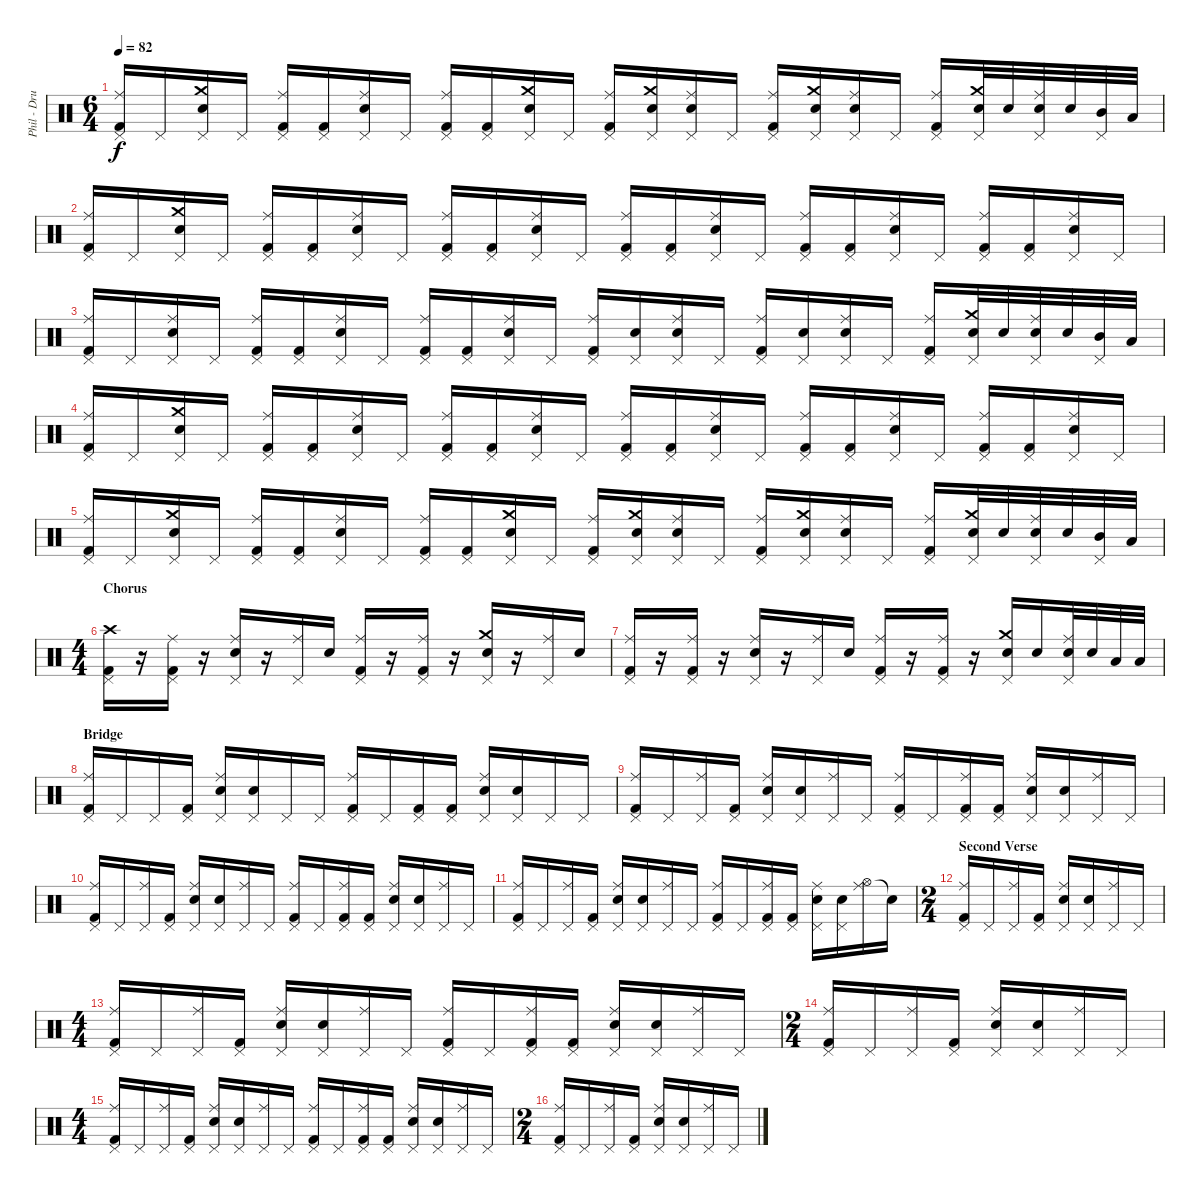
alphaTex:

\track ("Phil - Drums" "Phil - Dru") {instrument percussion}
\staff {score}
\articulation defaults
\ts (6 4)
\tempo 82
\clef neutral
\ks c
("Ride (middle)" "Kick (hit) 2" "Pedal Hi-Hat (hit)").16{dy f} "Pedal Hi-Hat (hit)".16 ("Crash medium (hit)" "Electric Snare (hit)" "Pedal Hi-Hat (hit)").16 "Pedal Hi-Hat (hit)".16 ("Ride (middle)" "Kick (hit) 2" "Pedal Hi-Hat (hit)").16 ("Kick (hit) 2" "Pedal Hi-Hat (hit)").16 ("Ride (middle)" "Electric Snare (hit)" "Pedal Hi-Hat (hit)").16 "Pedal Hi-Hat (hit)".16 ("Ride (middle)" "Kick (hit) 2" "Pedal Hi-Hat (hit)").16 ("Kick (hit) 2" "Pedal Hi-Hat (hit)").16 ("Crash medium (hit)" "Electric Snare (hit)" "Pedal Hi-Hat (hit)").16 "Pedal Hi-Hat (hit)".16 ("Ride (middle)" "Kick (hit) 2" "Pedal Hi-Hat (hit)").16 ("Crash medium (hit)" "Electric Snare (hit)" "Pedal Hi-Hat (hit)").16 ("Ride (middle)" "Electric Snare (hit)" "Pedal Hi-Hat (hit)").16 "Pedal Hi-Hat (hit)".16 ("Ride (middle)" "Kick (hit) 2" "Pedal Hi-Hat (hit)").16 ("Crash medium (hit)" "Electric Snare (hit)" "Pedal Hi-Hat (hit)").16 ("Ride (middle)" "Electric Snare (hit)" "Pedal Hi-Hat (hit)").16 "Pedal Hi-Hat (hit)".16 ("Ride (middle)" "Kick (hit) 2" "Pedal Hi-Hat (hit)").16 ("Crash medium (hit)" "Electric Snare (hit)" "Pedal Hi-Hat (hit)").32 "Electric Snare (hit)".32 ("Ride (middle)" "Electric Snare (hit)" "Pedal Hi-Hat (hit)").32 "Electric Snare (hit)".32 ("Mid Tom (hit)" "Pedal Hi-Hat (hit)").32 "Low Tom (hit)".32 |
("Ride (middle)" "Kick (hit) 2" "Pedal Hi-Hat (hit)").16 "Pedal Hi-Hat (hit)".16 ("Crash medium (hit)" "Electric Snare (hit)" "Pedal Hi-Hat (hit)").16 "Pedal Hi-Hat (hit)".16 ("Ride (middle)" "Kick (hit) 2" "Pedal Hi-Hat (hit)").16 ("Kick (hit) 2" "Pedal Hi-Hat (hit)").16 ("Ride (middle)" "Electric Snare (hit)" "Pedal Hi-Hat (hit)").16 "Pedal Hi-Hat (hit)".16 ("Ride (middle)" "Kick (hit) 2" "Pedal Hi-Hat (hit)").16 ("Kick (hit) 2" "Pedal Hi-Hat (hit)").16 ("Ride (middle)" "Electric Snare (hit)" "Pedal Hi-Hat (hit)").16 "Pedal Hi-Hat (hit)".16 ("Ride (middle)" "Kick (hit) 2" "Pedal Hi-Hat (hit)").16 ("Kick (hit) 2" "Pedal Hi-Hat (hit)").16 ("Ride (middle)" "Electric Snare (hit)" "Pedal Hi-Hat (hit)").16 "Pedal Hi-Hat (hit)".16 ("Ride (middle)" "Kick (hit) 2" "Pedal Hi-Hat (hit)").16 ("Kick (hit) 2" "Pedal Hi-Hat (hit)").16 ("Ride (middle)" "Electric Snare (hit)" "Pedal Hi-Hat (hit)").16 "Pedal Hi-Hat (hit)".16 ("Ride (middle)" "Kick (hit) 2" "Pedal Hi-Hat (hit)").16 ("Kick (hit) 2" "Pedal Hi-Hat (hit)").16 ("Ride (middle)" "Electric Snare (hit)" "Pedal Hi-Hat (hit)").16 "Pedal Hi-Hat (hit)".16 |
("Ride (middle)" "Kick (hit) 2" "Pedal Hi-Hat (hit)").16 "Pedal Hi-Hat (hit)".16 ("Ride (middle)" "Electric Snare (hit)" "Pedal Hi-Hat (hit)").16 "Pedal Hi-Hat (hit)".16 ("Ride (middle)" "Kick (hit) 2" "Pedal Hi-Hat (hit)").16 ("Kick (hit) 2" "Pedal Hi-Hat (hit)").16 ("Ride (middle)" "Electric Snare (hit)" "Pedal Hi-Hat (hit)").16 "Pedal Hi-Hat (hit)".16 ("Ride (middle)" "Kick (hit) 2" "Pedal Hi-Hat (hit)").16 ("Kick (hit) 2" "Pedal Hi-Hat (hit)").16 ("Ride (middle)" "Electric Snare (hit)" "Pedal Hi-Hat (hit)").16 "Pedal Hi-Hat (hit)".16 ("Ride (middle)" "Kick (hit) 2" "Pedal Hi-Hat (hit)").16 ("Electric Snare (hit)" "Pedal Hi-Hat (hit)").16 ("Ride (middle)" "Electric Snare (hit)" "Pedal Hi-Hat (hit)").16 "Pedal Hi-Hat (hit)".16 ("Ride (middle)" "Kick (hit) 2" "Pedal Hi-Hat (hit)").16 ("Electric Snare (hit)" "Pedal Hi-Hat (hit)").16 ("Ride (middle)" "Electric Snare (hit)" "Pedal Hi-Hat (hit)").16 "Pedal Hi-Hat (hit)".16 ("Ride (middle)" "Kick (hit) 2" "Pedal Hi-Hat (hit)").16 ("Crash medium (hit)" "Electric Snare (hit)" "Pedal Hi-Hat (hit)").32 "Electric Snare (hit)".32 ("Ride (middle)" "Electric Snare (hit)" "Pedal Hi-Hat (hit)").32 "Electric Snare (hit)".32 ("Mid Tom (hit)" "Pedal Hi-Hat (hit)").32 "Low Tom (hit)".32 |
("Ride (middle)" "Kick (hit) 2" "Pedal Hi-Hat (hit)").16 "Pedal Hi-Hat (hit)".16 ("Crash medium (hit)" "Electric Snare (hit)" "Pedal Hi-Hat (hit)").16 "Pedal Hi-Hat (hit)".16 ("Ride (middle)" "Kick (hit) 2" "Pedal Hi-Hat (hit)").16 ("Kick (hit) 2" "Pedal Hi-Hat (hit)").16 ("Ride (middle)" "Electric Snare (hit)" "Pedal Hi-Hat (hit)").16 "Pedal Hi-Hat (hit)".16 ("Ride (middle)" "Kick (hit) 2" "Pedal Hi-Hat (hit)").16 ("Kick (hit) 2" "Pedal Hi-Hat (hit)").16 ("Ride (middle)" "Electric Snare (hit)" "Pedal Hi-Hat (hit)").16 "Pedal Hi-Hat (hit)".16 ("Ride (middle)" "Kick (hit) 2" "Pedal Hi-Hat (hit)").16 ("Kick (hit) 2" "Pedal Hi-Hat (hit)").16 ("Ride (middle)" "Electric Snare (hit)" "Pedal Hi-Hat (hit)").16 "Pedal Hi-Hat (hit)".16 ("Ride (middle)" "Kick (hit) 2" "Pedal Hi-Hat (hit)").16 ("Kick (hit) 2" "Pedal Hi-Hat (hit)").16 ("Ride (middle)" "Electric Snare (hit)" "Pedal Hi-Hat (hit)").16 "Pedal Hi-Hat (hit)".16 ("Ride (middle)" "Kick (hit) 2" "Pedal Hi-Hat (hit)").16 ("Kick (hit) 2" "Pedal Hi-Hat (hit)").16 ("Ride (middle)" "Electric Snare (hit)" "Pedal Hi-Hat (hit)").16 "Pedal Hi-Hat (hit)".16 |
("Ride (middle)" "Kick (hit) 2" "Pedal Hi-Hat (hit)").16 "Pedal Hi-Hat (hit)".16 ("Crash medium (hit)" "Electric Snare (hit)" "Pedal Hi-Hat (hit)").16 "Pedal Hi-Hat (hit)".16 ("Ride (middle)" "Kick (hit) 2" "Pedal Hi-Hat (hit)").16 ("Kick (hit) 2" "Pedal Hi-Hat (hit)").16 ("Ride (middle)" "Electric Snare (hit)" "Pedal Hi-Hat (hit)").16 "Pedal Hi-Hat (hit)".16 ("Ride (middle)" "Kick (hit) 2" "Pedal Hi-Hat (hit)").16 ("Kick (hit) 2" "Pedal Hi-Hat (hit)").16 ("Crash medium (hit)" "Electric Snare (hit)" "Pedal Hi-Hat (hit)").16 "Pedal Hi-Hat (hit)".16 ("Ride (middle)" "Kick (hit) 2" "Pedal Hi-Hat (hit)").16 ("Crash medium (hit)" "Electric Snare (hit)" "Pedal Hi-Hat (hit)").16 ("Ride (middle)" "Electric Snare (hit)" "Pedal Hi-Hat (hit)").16 "Pedal Hi-Hat (hit)".16 ("Ride (middle)" "Kick (hit) 2" "Pedal Hi-Hat (hit)").16 ("Crash medium (hit)" "Electric Snare (hit)" "Pedal Hi-Hat (hit)").16 ("Ride (middle)" "Electric Snare (hit)" "Pedal Hi-Hat (hit)").16 "Pedal Hi-Hat (hit)".16 ("Ride (middle)" "Kick (hit) 2" "Pedal Hi-Hat (hit)").16 ("Crash medium (hit)" "Electric Snare (hit)" "Pedal Hi-Hat (hit)").32 "Electric Snare (hit)".32 ("Ride (middle)" "Electric Snare (hit)" "Pedal Hi-Hat (hit)").32 "Electric Snare (hit)".32 ("Mid Tom (hit)" "Pedal Hi-Hat (hit)").32 "Low Tom (hit)".32 |
\ts (4 4)
\section ("" "Chorus")
("Crash high (hit)" "Kick (hit) 2" "Pedal Hi-Hat (hit)").16 r.16 ("Ride (middle)" "Kick (hit) 2" "Pedal Hi-Hat (hit)").16 r.16 ("Ride (middle)" "Electric Snare (hit)" "Pedal Hi-Hat (hit)").16 r.16 ("Ride (middle)" "Pedal Hi-Hat (hit)").16 "Electric Snare (hit)".16 ("Ride (middle)" "Kick (hit) 2" "Pedal Hi-Hat (hit)").16 r.16 ("Ride (middle)" "Kick (hit) 2" "Pedal Hi-Hat (hit)").16 r.16 ("Crash medium (hit)" "Electric Snare (hit)" "Pedal Hi-Hat (hit)").16 r.16 ("Ride (middle)" "Pedal Hi-Hat (hit)").16 "Electric Snare (hit)".16 |
("Ride (middle)" "Kick (hit) 2" "Pedal Hi-Hat (hit)").16 r.16 ("Ride (middle)" "Kick (hit) 2" "Pedal Hi-Hat (hit)").16 r.16 ("Ride (middle)" "Electric Snare (hit)" "Pedal Hi-Hat (hit)").16 r.16 ("Ride (middle)" "Pedal Hi-Hat (hit)").16 "Electric Snare (hit)".16 ("Ride (middle)" "Kick (hit) 2" "Pedal Hi-Hat (hit)").16 r.16 ("Ride (middle)" "Kick (hit) 2" "Pedal Hi-Hat (hit)").16 r.16 ("Crash medium (hit)" "Electric Snare (hit)" "Pedal Hi-Hat (hit)").16 "Electric Snare (hit)".16 ("Ride (middle)" "Electric Snare (hit)" "Pedal Hi-Hat (hit)").32 "Electric Snare (hit)".32 "Low Tom (hit)".32 "Low Tom (hit)".32 |
\section ("" "Bridge")
("Ride (middle)" "Kick (hit) 2" "Pedal Hi-Hat (hit)").16 "Pedal Hi-Hat (hit)".16 "Pedal Hi-Hat (hit)".16 ("Kick (hit) 2" "Pedal Hi-Hat (hit)").16 ("Ride (middle)" "Electric Snare (hit)" "Pedal Hi-Hat (hit)").16 ("Electric Snare (hit)" "Pedal Hi-Hat (hit)").16 "Pedal Hi-Hat (hit)".16 "Pedal Hi-Hat (hit)".16 ("Ride (middle)" "Kick (hit) 2" "Pedal Hi-Hat (hit)").16 "Pedal Hi-Hat (hit)".16 ("Kick (hit) 2" "Pedal Hi-Hat (hit)").16 ("Kick (hit) 2" "Pedal Hi-Hat (hit)").16 ("Ride (middle)" "Electric Snare (hit)" "Pedal Hi-Hat (hit)").16 ("Electric Snare (hit)" "Pedal Hi-Hat (hit)").16 "Pedal Hi-Hat (hit)".16 "Pedal Hi-Hat (hit)".16 |
("Ride (middle)" "Kick (hit) 2" "Pedal Hi-Hat (hit)").16 "Pedal Hi-Hat (hit)".16 ("Ride (middle)" "Pedal Hi-Hat (hit)").16 ("Kick (hit) 2" "Pedal Hi-Hat (hit)").16 ("Ride (middle)" "Electric Snare (hit)" "Pedal Hi-Hat (hit)").16 ("Electric Snare (hit)" "Pedal Hi-Hat (hit)").16 ("Ride (middle)" "Pedal Hi-Hat (hit)").16 "Pedal Hi-Hat (hit)".16 ("Ride (middle)" "Kick (hit) 2" "Pedal Hi-Hat (hit)").16 "Pedal Hi-Hat (hit)".16 ("Ride (middle)" "Kick (hit) 2" "Pedal Hi-Hat (hit)").16 ("Kick (hit) 2" "Pedal Hi-Hat (hit)").16 ("Ride (middle)" "Electric Snare (hit)" "Pedal Hi-Hat (hit)").16 ("Electric Snare (hit)" "Pedal Hi-Hat (hit)").16 ("Ride (middle)" "Pedal Hi-Hat (hit)").16 "Pedal Hi-Hat (hit)".16 |
("Ride (middle)" "Kick (hit) 2" "Pedal Hi-Hat (hit)").16 "Pedal Hi-Hat (hit)".16 ("Ride (middle)" "Pedal Hi-Hat (hit)").16 ("Kick (hit) 2" "Pedal Hi-Hat (hit)").16 ("Ride (middle)" "Electric Snare (hit)" "Pedal Hi-Hat (hit)").16 ("Electric Snare (hit)" "Pedal Hi-Hat (hit)").16 ("Ride (middle)" "Pedal Hi-Hat (hit)").16 "Pedal Hi-Hat (hit)".16 ("Ride (middle)" "Kick (hit) 2" "Pedal Hi-Hat (hit)").16 "Pedal Hi-Hat (hit)".16 ("Ride (middle)" "Kick (hit) 2" "Pedal Hi-Hat (hit)").16 ("Kick (hit) 2" "Pedal Hi-Hat (hit)").16 ("Ride (middle)" "Electric Snare (hit)" "Pedal Hi-Hat (hit)").16 ("Electric Snare (hit)" "Pedal Hi-Hat (hit)").16 ("Ride (middle)" "Pedal Hi-Hat (hit)").16 "Pedal Hi-Hat (hit)".16 |
("Ride (middle)" "Kick (hit) 2" "Pedal Hi-Hat (hit)").16 "Pedal Hi-Hat (hit)".16 ("Ride (middle)" "Pedal Hi-Hat (hit)").16 ("Kick (hit) 2" "Pedal Hi-Hat (hit)").16 ("Ride (middle)" "Electric Snare (hit)" "Pedal Hi-Hat (hit)").16 ("Electric Snare (hit)" "Pedal Hi-Hat (hit)").16 ("Ride (middle)" "Pedal Hi-Hat (hit)").16 "Pedal Hi-Hat (hit)".16 ("Ride (middle)" "Kick (hit) 2" "Pedal Hi-Hat (hit)").16 "Pedal Hi-Hat (hit)".16 ("Ride (middle)" "Kick (hit) 2" "Pedal Hi-Hat (hit)").16 ("Kick (hit) 2" "Pedal Hi-Hat (hit)").16 ("Ride (middle)" "Electric Snare (hit)" "Pedal Hi-Hat (hit)").16 ("Electric Snare (hit)" "Pedal Hi-Hat (hit)").16 ("Ride (middle)" "Hi-Hat (open)").16 "Snare (hit)"{t}.16 |
\ts (2 4)
\section ("" "Second Verse")
("Ride (middle)" "Kick (hit) 2" "Pedal Hi-Hat (hit)").16 "Pedal Hi-Hat (hit)".16 ("Ride (middle)" "Pedal Hi-Hat (hit)").16 ("Kick (hit) 2" "Pedal Hi-Hat (hit)").16 ("Ride (middle)" "Electric Snare (hit)" "Pedal Hi-Hat (hit)").16 ("Electric Snare (hit)" "Pedal Hi-Hat (hit)").16 ("Ride (middle)" "Pedal Hi-Hat (hit)").16 "Pedal Hi-Hat (hit)".16 |
\ts (4 4)
("Ride (middle)" "Kick (hit) 2" "Pedal Hi-Hat (hit)").16 "Pedal Hi-Hat (hit)".16 ("Ride (middle)" "Pedal Hi-Hat (hit)").16 ("Kick (hit) 2" "Pedal Hi-Hat (hit)").16 ("Ride (middle)" "Electric Snare (hit)" "Pedal Hi-Hat (hit)").16 ("Electric Snare (hit)" "Pedal Hi-Hat (hit)").16 ("Ride (middle)" "Pedal Hi-Hat (hit)").16 "Pedal Hi-Hat (hit)".16 ("Ride (middle)" "Kick (hit) 2" "Pedal Hi-Hat (hit)").16 "Pedal Hi-Hat (hit)".16 ("Ride (middle)" "Kick (hit) 2" "Pedal Hi-Hat (hit)").16 ("Kick (hit) 2" "Pedal Hi-Hat (hit)").16 ("Ride (middle)" "Electric Snare (hit)" "Pedal Hi-Hat (hit)").16 ("Electric Snare (hit)" "Pedal Hi-Hat (hit)").16 ("Ride (middle)" "Pedal Hi-Hat (hit)").16 "Pedal Hi-Hat (hit)".16 |
\ts (2 4)
("Ride (middle)" "Kick (hit) 2" "Pedal Hi-Hat (hit)").16 "Pedal Hi-Hat (hit)".16 ("Ride (middle)" "Pedal Hi-Hat (hit)").16 ("Kick (hit) 2" "Pedal Hi-Hat (hit)").16 ("Ride (middle)" "Electric Snare (hit)" "Pedal Hi-Hat (hit)").16 ("Electric Snare (hit)" "Pedal Hi-Hat (hit)").16 ("Ride (middle)" "Pedal Hi-Hat (hit)").16 "Pedal Hi-Hat (hit)".16 |
\ts (4 4)
("Ride (middle)" "Kick (hit) 2" "Pedal Hi-Hat (hit)").16 "Pedal Hi-Hat (hit)".16 ("Ride (middle)" "Pedal Hi-Hat (hit)").16 ("Kick (hit) 2" "Pedal Hi-Hat (hit)").16 ("Ride (middle)" "Electric Snare (hit)" "Pedal Hi-Hat (hit)").16 ("Electric Snare (hit)" "Pedal Hi-Hat (hit)").16 ("Ride (middle)" "Pedal Hi-Hat (hit)").16 "Pedal Hi-Hat (hit)".16 ("Ride (middle)" "Kick (hit) 2" "Pedal Hi-Hat (hit)").16 "Pedal Hi-Hat (hit)".16 ("Ride (middle)" "Kick (hit) 2" "Pedal Hi-Hat (hit)").16 ("Kick (hit) 2" "Pedal Hi-Hat (hit)").16 ("Ride (middle)" "Electric Snare (hit)" "Pedal Hi-Hat (hit)").16 ("Electric Snare (hit)" "Pedal Hi-Hat (hit)").16 ("Ride (middle)" "Pedal Hi-Hat (hit)").16 "Pedal Hi-Hat (hit)".16 |
\ts (2 4)
("Ride (middle)" "Kick (hit) 2" "Pedal Hi-Hat (hit)").16 "Pedal Hi-Hat (hit)".16 ("Ride (middle)" "Pedal Hi-Hat (hit)").16 ("Kick (hit) 2" "Pedal Hi-Hat (hit)").16 ("Ride (middle)" "Electric Snare (hit)" "Pedal Hi-Hat (hit)").16 ("Electric Snare (hit)" "Pedal Hi-Hat (hit)").16 ("Ride (middle)" "Pedal Hi-Hat (hit)").16 "Pedal Hi-Hat (hit)".16
